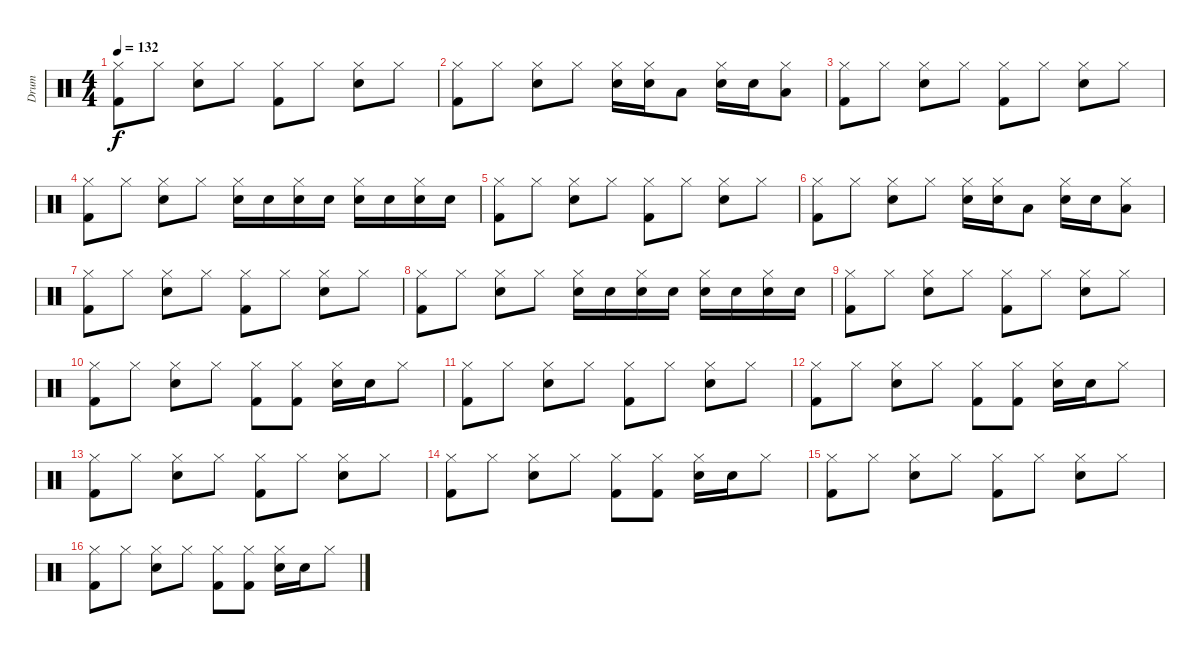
\track ("Drum" "Drum") {instrument percussion}
\staff {score}
\articulation defaults
\ts (4 4)
\tempo 132
\clef neutral
\ks c
("Hi-Hat (closed)" "Kick (hit) 2").8{dy f} "Hi-Hat (closed)".8 ("Hi-Hat (closed)" "Electric Snare (hit)").8 "Hi-Hat (closed)".8 ("Hi-Hat (closed)" "Kick (hit) 2").8 "Hi-Hat (closed)".8 ("Hi-Hat (closed)" "Electric Snare (hit)").8 "Hi-Hat (closed)".8 |
("Hi-Hat (closed)" "Kick (hit) 2").8 "Hi-Hat (closed)".8 ("Hi-Hat (closed)" "Electric Snare (hit)").8 "Hi-Hat (closed)".8 ("Hi-Hat (closed)" "Electric Snare (hit)").16 ("Hi-Hat (closed)" "Electric Snare (hit)").16 "Low Floor Tom (hit)".8 ("Hi-Hat (closed)" "Electric Snare (hit)").16 "Electric Snare (hit)".16 ("Hi-Hat (closed)" "Low Tom (hit)").8 |
("Hi-Hat (closed)" "Kick (hit) 2").8 "Hi-Hat (closed)".8 ("Hi-Hat (closed)" "Electric Snare (hit)").8 "Hi-Hat (closed)".8 ("Hi-Hat (closed)" "Kick (hit) 2").8 "Hi-Hat (closed)".8 ("Hi-Hat (closed)" "Electric Snare (hit)").8 "Hi-Hat (closed)".8 |
("Hi-Hat (closed)" "Kick (hit) 2").8 "Hi-Hat (closed)".8 ("Hi-Hat (closed)" "Electric Snare (hit)").8 "Hi-Hat (closed)".8 ("Hi-Hat (closed)" "Electric Snare (hit)").16 "Electric Snare (hit)".16 ("Hi-Hat (closed)" "Electric Snare (hit)").16 "Electric Snare (hit)".16 ("Hi-Hat (closed)" "Electric Snare (hit)").16 "Electric Snare (hit)".16 ("Hi-Hat (closed)" "Electric Snare (hit)").16 "Electric Snare (hit)".16 |
("Hi-Hat (closed)" "Kick (hit) 2").8 "Hi-Hat (closed)".8 ("Hi-Hat (closed)" "Electric Snare (hit)").8 "Hi-Hat (closed)".8 ("Hi-Hat (closed)" "Kick (hit) 2").8 "Hi-Hat (closed)".8 ("Hi-Hat (closed)" "Electric Snare (hit)").8 "Hi-Hat (closed)".8 |
("Hi-Hat (closed)" "Kick (hit) 2").8 "Hi-Hat (closed)".8 ("Hi-Hat (closed)" "Electric Snare (hit)").8 "Hi-Hat (closed)".8 ("Hi-Hat (closed)" "Electric Snare (hit)").16 ("Hi-Hat (closed)" "Electric Snare (hit)").16 "Low Floor Tom (hit)".8 ("Hi-Hat (closed)" "Electric Snare (hit)").16 "Electric Snare (hit)".16 ("Hi-Hat (closed)" "Low Tom (hit)").8 |
("Hi-Hat (closed)" "Kick (hit) 2").8 "Hi-Hat (closed)".8 ("Hi-Hat (closed)" "Electric Snare (hit)").8 "Hi-Hat (closed)".8 ("Hi-Hat (closed)" "Kick (hit) 2").8 "Hi-Hat (closed)".8 ("Hi-Hat (closed)" "Electric Snare (hit)").8 "Hi-Hat (closed)".8 |
("Hi-Hat (closed)" "Kick (hit) 2").8 "Hi-Hat (closed)".8 ("Hi-Hat (closed)" "Electric Snare (hit)").8 "Hi-Hat (closed)".8 ("Hi-Hat (closed)" "Electric Snare (hit)").16 "Electric Snare (hit)".16 ("Hi-Hat (closed)" "Electric Snare (hit)").16 "Electric Snare (hit)".16 ("Hi-Hat (closed)" "Electric Snare (hit)").16 "Electric Snare (hit)".16 ("Hi-Hat (closed)" "Electric Snare (hit)").16 "Electric Snare (hit)".16 |
("Hi-Hat (closed)" "Kick (hit) 2").8 "Hi-Hat (closed)".8 ("Hi-Hat (closed)" "Electric Snare (hit)").8 "Hi-Hat (closed)".8 ("Hi-Hat (closed)" "Kick (hit) 2").8 "Hi-Hat (closed)".8 ("Hi-Hat (closed)" "Electric Snare (hit)").8 "Hi-Hat (closed)".8 |
("Hi-Hat (closed)" "Kick (hit) 2").8 "Hi-Hat (closed)".8 ("Hi-Hat (closed)" "Electric Snare (hit)").8 "Hi-Hat (closed)".8 ("Hi-Hat (closed)" "Kick (hit) 2").8 ("Hi-Hat (closed)" "Kick (hit) 2").8 ("Hi-Hat (closed)" "Electric Snare (hit)").16 "Electric Snare (hit)".16 "Hi-Hat (closed)".8 |
("Hi-Hat (closed)" "Kick (hit) 2").8 "Hi-Hat (closed)".8 ("Hi-Hat (closed)" "Electric Snare (hit)").8 "Hi-Hat (closed)".8 ("Hi-Hat (closed)" "Kick (hit) 2").8 "Hi-Hat (closed)".8 ("Hi-Hat (closed)" "Electric Snare (hit)").8 "Hi-Hat (closed)".8 |
("Hi-Hat (closed)" "Kick (hit) 2").8 "Hi-Hat (closed)".8 ("Hi-Hat (closed)" "Electric Snare (hit)").8 "Hi-Hat (closed)".8 ("Hi-Hat (closed)" "Kick (hit) 2").8 ("Hi-Hat (closed)" "Kick (hit) 2").8 ("Hi-Hat (closed)" "Electric Snare (hit)").16 "Electric Snare (hit)".16 "Hi-Hat (closed)".8 |
("Hi-Hat (closed)" "Kick (hit) 2").8 "Hi-Hat (closed)".8 ("Hi-Hat (closed)" "Electric Snare (hit)").8 "Hi-Hat (closed)".8 ("Hi-Hat (closed)" "Kick (hit) 2").8 "Hi-Hat (closed)".8 ("Hi-Hat (closed)" "Electric Snare (hit)").8 "Hi-Hat (closed)".8 |
("Hi-Hat (closed)" "Kick (hit) 2").8 "Hi-Hat (closed)".8 ("Hi-Hat (closed)" "Electric Snare (hit)").8 "Hi-Hat (closed)".8 ("Hi-Hat (closed)" "Kick (hit) 2").8 ("Hi-Hat (closed)" "Kick (hit) 2").8 ("Hi-Hat (closed)" "Electric Snare (hit)").16 "Electric Snare (hit)".16 "Hi-Hat (closed)".8 |
("Hi-Hat (closed)" "Kick (hit) 2").8 "Hi-Hat (closed)".8 ("Hi-Hat (closed)" "Electric Snare (hit)").8 "Hi-Hat (closed)".8 ("Hi-Hat (closed)" "Kick (hit) 2").8 "Hi-Hat (closed)".8 ("Hi-Hat (closed)" "Electric Snare (hit)").8 "Hi-Hat (closed)".8 |
("Hi-Hat (closed)" "Kick (hit) 2").8 "Hi-Hat (closed)".8 ("Hi-Hat (closed)" "Electric Snare (hit)").8 "Hi-Hat (closed)".8 ("Hi-Hat (closed)" "Kick (hit) 2").8 ("Hi-Hat (closed)" "Kick (hit) 2").8 ("Hi-Hat (closed)" "Electric Snare (hit)").16 "Electric Snare (hit)".16 "Hi-Hat (closed)".8
